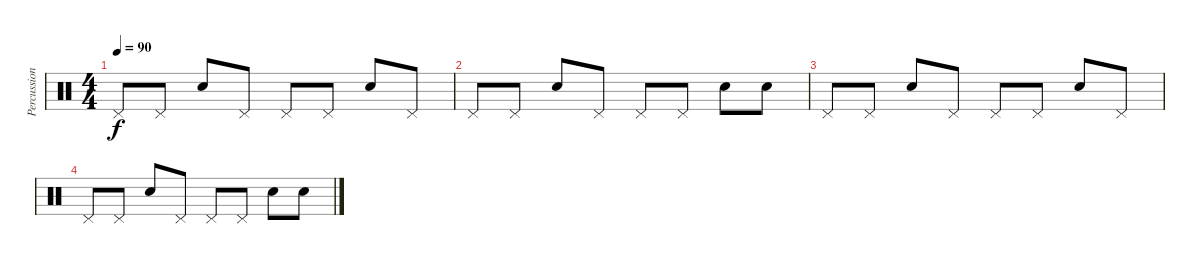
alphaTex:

\track ("Percussions" "Percussion") {instrument percussion}
\staff {score}
\articulation defaults
\ts (4 4)
\tempo 90
\clef neutral
\ks c "Pedal Hi-Hat (hit)".8{dy f} "Pedal Hi-Hat (hit)".8 "Electric Snare (hit)".8 "Pedal Hi-Hat (hit)".8 "Pedal Hi-Hat (hit)".8 "Pedal Hi-Hat (hit)".8 "Electric Snare (hit)".8 "Pedal Hi-Hat (hit)".8
|
"Pedal Hi-Hat (hit)".8 "Pedal Hi-Hat (hit)".8 "Electric Snare (hit)".8 "Pedal Hi-Hat (hit)".8 "Pedal Hi-Hat (hit)".8 "Pedal Hi-Hat (hit)".8 "Electric Snare (hit)".8 "Electric Snare (hit)".8 |
"Pedal Hi-Hat (hit)".8 "Pedal Hi-Hat (hit)".8 "Electric Snare (hit)".8 "Pedal Hi-Hat (hit)".8 "Pedal Hi-Hat (hit)".8 "Pedal Hi-Hat (hit)".8 "Electric Snare (hit)".8 "Pedal Hi-Hat (hit)".8 |
"Pedal Hi-Hat (hit)".8 "Pedal Hi-Hat (hit)".8 "Electric Snare (hit)".8 "Pedal Hi-Hat (hit)".8 "Pedal Hi-Hat (hit)".8 "Pedal Hi-Hat (hit)".8 "Electric Snare (hit)".8 "Electric Snare (hit)".8
